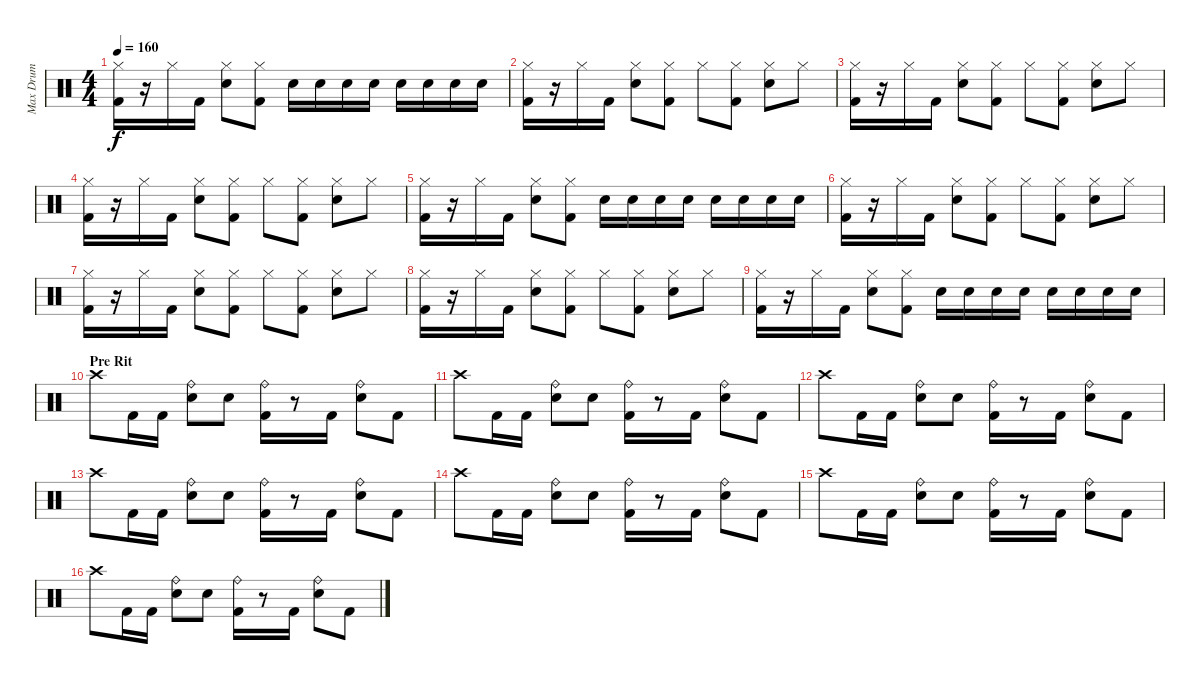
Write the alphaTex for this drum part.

\track ("Max Drum" "Max Drum") {instrument percussion}
\staff {score}
\articulation defaults
\ts (4 4)
\tempo 160
\clef neutral
\ks c
("Hi-Hat (closed)" "Kick (hit) 2").16{dy f} r.16 "Hi-Hat (closed)".16 "Kick (hit) 2".16 ("Hi-Hat (closed)" "Snare (hit) 2").8 ("Hi-Hat (closed)" "Kick (hit) 2").8 "Snare (hit) 2".16 "Snare (hit) 2".16 "Snare (hit) 2".16 "Snare (hit) 2".16 "Snare (hit) 2".16 "Snare (hit) 2".16 "Snare (hit) 2".16 "Snare (hit) 2".16 |
("Hi-Hat (closed)" "Kick (hit) 2").16 r.16 "Hi-Hat (closed)".16 "Kick (hit) 2".16 ("Hi-Hat (closed)" "Snare (hit) 2").8 ("Hi-Hat (closed)" "Kick (hit) 2").8 "Hi-Hat (closed)".8 ("Hi-Hat (closed)" "Kick (hit) 2").8 ("Hi-Hat (closed)" "Snare (hit) 2").8 "Hi-Hat (closed)".8 |
("Hi-Hat (closed)" "Kick (hit) 2").16 r.16 "Hi-Hat (closed)".16 "Kick (hit) 2".16 ("Hi-Hat (closed)" "Snare (hit) 2").8 ("Hi-Hat (closed)" "Kick (hit) 2").8 "Hi-Hat (closed)".8 ("Hi-Hat (closed)" "Kick (hit) 2").8 ("Hi-Hat (closed)" "Snare (hit) 2").8 "Hi-Hat (closed)".8 |
("Hi-Hat (closed)" "Kick (hit) 2").16 r.16 "Hi-Hat (closed)".16 "Kick (hit) 2".16 ("Hi-Hat (closed)" "Snare (hit) 2").8 ("Hi-Hat (closed)" "Kick (hit) 2").8 "Hi-Hat (closed)".8 ("Hi-Hat (closed)" "Kick (hit) 2").8 ("Hi-Hat (closed)" "Snare (hit) 2").8 "Hi-Hat (closed)".8 |
("Hi-Hat (closed)" "Kick (hit) 2").16 r.16 "Hi-Hat (closed)".16 "Kick (hit) 2".16 ("Hi-Hat (closed)" "Snare (hit) 2").8 ("Hi-Hat (closed)" "Kick (hit) 2").8 "Snare (hit) 2".16 "Snare (hit) 2".16 "Snare (hit) 2".16 "Snare (hit) 2".16 "Snare (hit) 2".16 "Snare (hit) 2".16 "Snare (hit) 2".16 "Snare (hit) 2".16 |
("Hi-Hat (closed)" "Kick (hit) 2").16 r.16 "Hi-Hat (closed)".16 "Kick (hit) 2".16 ("Hi-Hat (closed)" "Snare (hit) 2").8 ("Hi-Hat (closed)" "Kick (hit) 2").8 "Hi-Hat (closed)".8 ("Hi-Hat (closed)" "Kick (hit) 2").8 ("Hi-Hat (closed)" "Snare (hit) 2").8 "Hi-Hat (closed)".8 |
("Hi-Hat (closed)" "Kick (hit) 2").16 r.16 "Hi-Hat (closed)".16 "Kick (hit) 2".16 ("Hi-Hat (closed)" "Snare (hit) 2").8 ("Hi-Hat (closed)" "Kick (hit) 2").8 "Hi-Hat (closed)".8 ("Hi-Hat (closed)" "Kick (hit) 2").8 ("Hi-Hat (closed)" "Snare (hit) 2").8 "Hi-Hat (closed)".8 |
("Hi-Hat (closed)" "Kick (hit) 2").16 r.16 "Hi-Hat (closed)".16 "Kick (hit) 2".16 ("Hi-Hat (closed)" "Snare (hit) 2").8 ("Hi-Hat (closed)" "Kick (hit) 2").8 "Hi-Hat (closed)".8 ("Hi-Hat (closed)" "Kick (hit) 2").8 ("Hi-Hat (closed)" "Snare (hit) 2").8 "Hi-Hat (closed)".8 |
("Hi-Hat (closed)" "Kick (hit) 2").16 r.16 "Hi-Hat (closed)".16 "Kick (hit) 2".16 ("Hi-Hat (closed)" "Snare (hit) 2").8 ("Hi-Hat (closed)" "Kick (hit) 2").8 "Snare (hit) 2".16 "Snare (hit) 2".16 "Snare (hit) 2".16 "Snare (hit) 2".16 "Snare (hit) 2".16 "Snare (hit) 2".16 "Snare (hit) 2".16 "Snare (hit) 2".16 |
\section ("" "Pre Rit")
"Crash high (hit)".8 "Kick (hit) 2".16 "Kick (hit) 2".16 ("Ride (bell)" "Snare (hit) 2").8 "Snare (hit) 2".8 ("Ride (bell)" "Kick (hit) 2").16 r.8 "Kick (hit) 2".16 ("Ride (bell)" "Snare (hit) 2").8 "Kick (hit) 2".8 |
"Crash high (hit)".8 "Kick (hit) 2".16 "Kick (hit) 2".16 ("Ride (bell)" "Snare (hit) 2").8 "Snare (hit) 2".8 ("Ride (bell)" "Kick (hit) 2").16 r.8 "Kick (hit) 2".16 ("Ride (bell)" "Snare (hit) 2").8 "Kick (hit) 2".8 |
"Crash high (hit)".8 "Kick (hit) 2".16 "Kick (hit) 2".16 ("Ride (bell)" "Snare (hit) 2").8 "Snare (hit) 2".8 ("Ride (bell)" "Kick (hit) 2").16 r.8 "Kick (hit) 2".16 ("Ride (bell)" "Snare (hit) 2").8 "Kick (hit) 2".8 |
"Crash high (hit)".8 "Kick (hit) 2".16 "Kick (hit) 2".16 ("Ride (bell)" "Snare (hit) 2").8 "Snare (hit) 2".8 ("Ride (bell)" "Kick (hit) 2").16 r.8 "Kick (hit) 2".16 ("Ride (bell)" "Snare (hit) 2").8 "Kick (hit) 2".8 |
"Crash high (hit)".8 "Kick (hit) 2".16 "Kick (hit) 2".16 ("Ride (bell)" "Snare (hit) 2").8 "Snare (hit) 2".8 ("Ride (bell)" "Kick (hit) 2").16 r.8 "Kick (hit) 2".16 ("Ride (bell)" "Snare (hit) 2").8 "Kick (hit) 2".8 |
"Crash high (hit)".8 "Kick (hit) 2".16 "Kick (hit) 2".16 ("Ride (bell)" "Snare (hit) 2").8 "Snare (hit) 2".8 ("Ride (bell)" "Kick (hit) 2").16 r.8 "Kick (hit) 2".16 ("Ride (bell)" "Snare (hit) 2").8 "Kick (hit) 2".8 |
"Crash high (hit)".8 "Kick (hit) 2".16 "Kick (hit) 2".16 ("Ride (bell)" "Snare (hit) 2").8 "Snare (hit) 2".8 ("Ride (bell)" "Kick (hit) 2").16 r.8 "Kick (hit) 2".16 ("Ride (bell)" "Snare (hit) 2").8 "Kick (hit) 2".8
